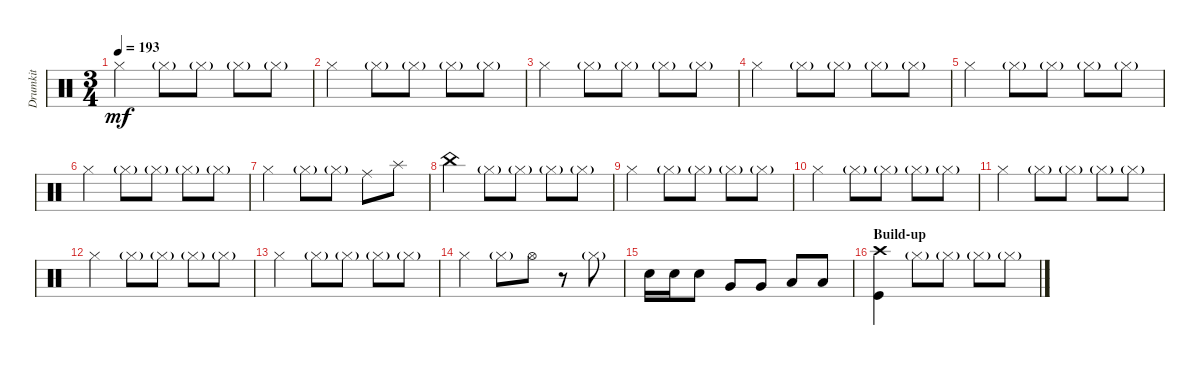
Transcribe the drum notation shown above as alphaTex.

\track ("Drumkit" "Drumkit") {instrument percussion}
\staff {score}
\articulation defaults
\ts (3 4)
\tempo 193
\clef neutral
\ks c "Hi-Hat (closed)".4{dy mf} "Hi-Hat (closed)"{g}.8 "Hi-Hat (closed)"{g}.8 "Hi-Hat (closed)"{g}.8 "Hi-Hat (closed)"{g}.8
|
"Hi-Hat (closed)".4 "Hi-Hat (closed)"{g}.8 "Hi-Hat (closed)"{g}.8 "Hi-Hat (closed)"{g}.8 "Hi-Hat (closed)"{g}.8 |
"Hi-Hat (closed)".4 "Hi-Hat (closed)"{g}.8 "Hi-Hat (closed)"{g}.8 "Hi-Hat (closed)"{g}.8 "Hi-Hat (closed)"{g}.8 |
"Hi-Hat (closed)".4 "Hi-Hat (closed)"{g}.8 "Hi-Hat (closed)"{g}.8 "Hi-Hat (closed)"{g}.8 "Hi-Hat (closed)"{g}.8 |
"Hi-Hat (closed)".4 "Hi-Hat (closed)"{g}.8 "Hi-Hat (closed)"{g}.8 "Hi-Hat (closed)"{g}.8 "Hi-Hat (closed)"{g}.8 |
"Hi-Hat (closed)".4 "Hi-Hat (closed)"{g}.8 "Hi-Hat (closed)"{g}.8 "Hi-Hat (closed)"{g}.8 "Hi-Hat (closed)"{g}.8 |
"Hi-Hat (closed)".4 "Hi-Hat (closed)"{g}.8 "Hi-Hat (closed)"{g}.8 "Ride (middle)".8 "Splash (hit)".8 |
"China (hit)".4 "Hi-Hat (closed)"{g}.8 "Hi-Hat (closed)"{g}.8 "Hi-Hat (closed)"{g}.8 "Hi-Hat (closed)"{g}.8 |
"Hi-Hat (closed)".4 "Hi-Hat (closed)"{g}.8 "Hi-Hat (closed)"{g}.8 "Hi-Hat (closed)"{g}.8 "Hi-Hat (closed)"{g}.8 |
"Hi-Hat (closed)".4 "Hi-Hat (closed)"{g}.8 "Hi-Hat (closed)"{g}.8 "Hi-Hat (closed)"{g}.8 "Hi-Hat (closed)"{g}.8 |
"Hi-Hat (closed)".4 "Hi-Hat (closed)"{g}.8 "Hi-Hat (closed)"{g}.8 "Hi-Hat (closed)"{g}.8 "Hi-Hat (closed)"{g}.8 |
"Hi-Hat (closed)".4 "Hi-Hat (closed)"{g}.8 "Hi-Hat (closed)"{g}.8 "Hi-Hat (closed)"{g}.8 "Hi-Hat (closed)"{g}.8 |
"Hi-Hat (closed)".4 "Hi-Hat (closed)"{g}.8 "Hi-Hat (closed)"{g}.8 "Hi-Hat (closed)"{g}.8 "Hi-Hat (closed)"{g}.8 |
"Hi-Hat (closed)".4 "Hi-Hat (closed)"{g}.8 "Hi-Hat (open)".8 r.8 "Hi-Hat (closed)"{g}.8 |
"Snare (hit) 2".16 "Snare (hit) 2".16 "Snare (hit) 2".8 "Very Low Tom (hit)".8 "Very Low Tom (hit)".8 "Low Floor Tom (hit)".8 "Low Floor Tom (hit)".8 |
\section ("" "Build-up")
("Crash high (hit)" "Kick (hit)").4 "Hi-Hat (closed)"{g}.8 "Hi-Hat (closed)"{g}.8 "Hi-Hat (closed)"{g}.8 "Hi-Hat (closed)"{g}.8
